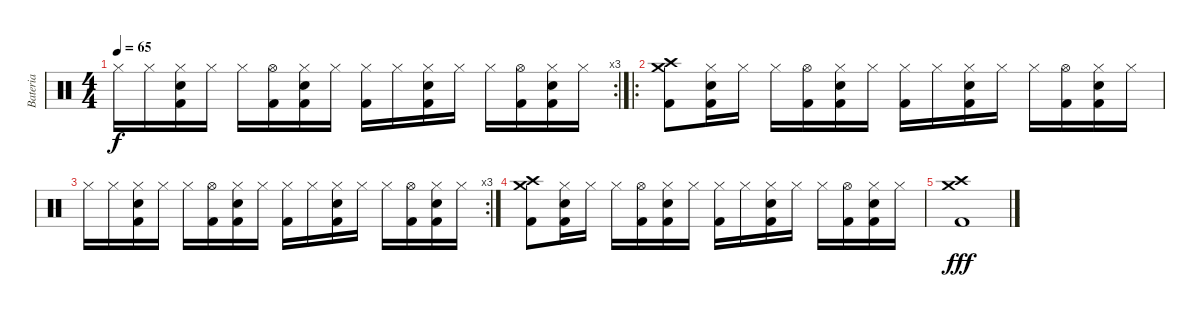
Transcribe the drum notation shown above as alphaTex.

\track ("Bateria" "Bateria") {instrument percussion}
\staff {score}
\articulation defaults
\rc 3
\ts (4 4)
\tempo 65
\clef neutral
\ks c "Hi-Hat (closed)".16{dy f} "Hi-Hat (closed)".16
("Hi-Hat (closed)" "Kick (hit) 2" "Electric Snare (hit)").16 "Hi-Hat (closed)".16 "Hi-Hat (closed)".16 ("Hi-Hat (open)" "Kick (hit) 2").16 ("Hi-Hat (closed)" "Kick (hit) 2" "Electric Snare (hit)").16 "Hi-Hat (closed)".16 ("Hi-Hat (closed)" "Kick (hit) 2").16 "Hi-Hat (closed)".16 ("Hi-Hat (closed)" "Kick (hit) 2" "Electric Snare (hit)").16 "Hi-Hat (closed)".16 "Hi-Hat (closed)".16 ("Hi-Hat (open)" "Kick (hit) 2").16 ("Hi-Hat (closed)" "Kick (hit) 2" "Electric Snare (hit)").16 "Hi-Hat (closed)".16 |
\ro
("Crash medium (hit)" "Kick (hit) 2" "Crash high (hit)").8{volume 16} ("Hi-Hat (closed)" "Kick (hit) 2" "Electric Snare (hit)").16 "Hi-Hat (closed)".16 "Hi-Hat (closed)".16 ("Hi-Hat (open)" "Kick (hit) 2").16 ("Hi-Hat (closed)" "Kick (hit) 2" "Electric Snare (hit)").16 "Hi-Hat (closed)".16 ("Hi-Hat (closed)" "Kick (hit) 2").16 "Hi-Hat (closed)".16 ("Hi-Hat (closed)" "Kick (hit) 2" "Electric Snare (hit)").16 "Hi-Hat (closed)".16 "Hi-Hat (closed)".16 ("Hi-Hat (open)" "Kick (hit) 2").16 ("Hi-Hat (closed)" "Kick (hit) 2" "Electric Snare (hit)").16 "Hi-Hat (closed)".16 |
\rc 3 "Hi-Hat (closed)".16 "Hi-Hat (closed)".16
("Hi-Hat (closed)" "Kick (hit) 2" "Electric Snare (hit)").16 "Hi-Hat (closed)".16 "Hi-Hat (closed)".16 ("Hi-Hat (open)" "Kick (hit) 2").16 ("Hi-Hat (closed)" "Kick (hit) 2" "Electric Snare (hit)").16 "Hi-Hat (closed)".16 ("Hi-Hat (closed)" "Kick (hit) 2").16 "Hi-Hat (closed)".16 ("Hi-Hat (closed)" "Kick (hit) 2" "Electric Snare (hit)").16 "Hi-Hat (closed)".16 "Hi-Hat (closed)".16 ("Hi-Hat (open)" "Kick (hit) 2").16 ("Hi-Hat (closed)" "Kick (hit) 2" "Electric Snare (hit)").16 "Hi-Hat (closed)".16 |
("Crash medium (hit)" "Kick (hit) 2" "Crash high (hit)").8{volume 16} ("Hi-Hat (closed)" "Kick (hit) 2" "Electric Snare (hit)").16 "Hi-Hat (closed)".16 "Hi-Hat (closed)".16 ("Hi-Hat (open)" "Kick (hit) 2").16 ("Hi-Hat (closed)" "Kick (hit) 2" "Electric Snare (hit)").16 "Hi-Hat (closed)".16 ("Hi-Hat (closed)" "Kick (hit) 2").16 "Hi-Hat (closed)".16 ("Hi-Hat (closed)" "Kick (hit) 2" "Electric Snare (hit)").16 "Hi-Hat (closed)".16 "Hi-Hat (closed)".16 ("Hi-Hat (open)" "Kick (hit) 2").16 ("Hi-Hat (closed)" "Kick (hit) 2" "Electric Snare (hit)").16 "Hi-Hat (closed)".16 |
("Crash medium (hit)" "Kick (hit) 2" "Crash high (hit)").1{dy fff volume 16}
